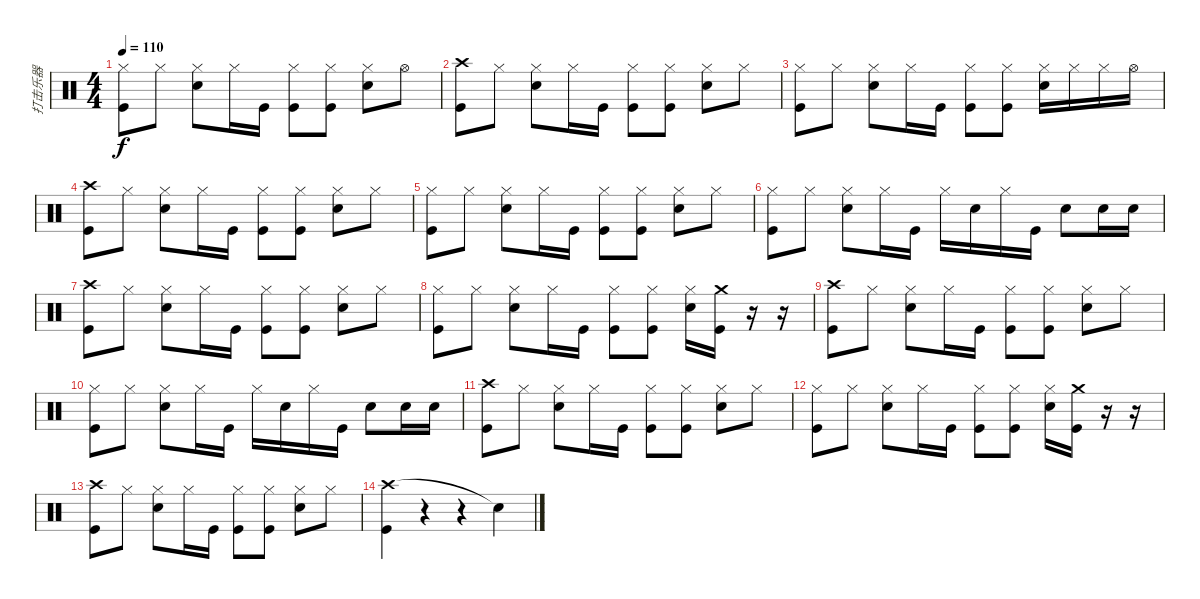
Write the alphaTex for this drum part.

\track ("打击乐器" "打击乐器") {instrument percussion}
\staff {score}
\articulation defaults
\ts (4 4)
\tempo 110
\clef neutral
\ks c
("Hi-Hat (closed)" "Kick (hit)").8{dy f} "Hi-Hat (closed)".8 ("Hi-Hat (closed)" "Snare (hit) 2").8 "Hi-Hat (closed)".16 "Kick (hit)".16 ("Hi-Hat (closed)" "Kick (hit)").8 ("Hi-Hat (closed)" "Kick (hit)").8 ("Hi-Hat (closed)" "Snare (hit) 2").8 "Hi-Hat (open)".8 |
("Crash high (hit)" "Kick (hit)").8 "Hi-Hat (closed)".8 ("Hi-Hat (closed)" "Snare (hit) 2").8 "Hi-Hat (closed)".16 "Kick (hit)".16 ("Hi-Hat (closed)" "Kick (hit)").8 ("Hi-Hat (closed)" "Kick (hit)").8 ("Hi-Hat (closed)" "Snare (hit) 2").8 "Hi-Hat (closed)".8 |
("Hi-Hat (closed)" "Kick (hit)").8 "Hi-Hat (closed)".8 ("Hi-Hat (closed)" "Snare (hit) 2").8 "Hi-Hat (closed)".16 "Kick (hit)".16 ("Hi-Hat (closed)" "Kick (hit)").8 ("Hi-Hat (closed)" "Kick (hit)").8 ("Hi-Hat (closed)" "Snare (hit) 2").16 "Hi-Hat (closed)".16 "Hi-Hat (closed)".16 "Hi-Hat (open)".16 |
("Crash high (hit)" "Kick (hit)").8 "Hi-Hat (closed)".8 ("Hi-Hat (closed)" "Snare (hit) 2").8 "Hi-Hat (closed)".16 "Kick (hit)".16 ("Hi-Hat (closed)" "Kick (hit)").8 ("Hi-Hat (closed)" "Kick (hit)").8 ("Hi-Hat (closed)" "Snare (hit) 2").8 "Hi-Hat (closed)".8 |
("Hi-Hat (closed)" "Kick (hit)").8 "Hi-Hat (closed)".8 ("Hi-Hat (closed)" "Snare (hit) 2").8 "Hi-Hat (closed)".16 "Kick (hit)".16 ("Hi-Hat (closed)" "Kick (hit)").8 ("Hi-Hat (closed)" "Kick (hit)").8 ("Hi-Hat (closed)" "Snare (hit) 2").8 "Hi-Hat (closed)".8 |
("Hi-Hat (closed)" "Kick (hit)").8 "Hi-Hat (closed)".8 ("Hi-Hat (closed)" "Snare (hit) 2").8 "Hi-Hat (closed)".16 "Kick (hit)".16 "Hi-Hat (closed)".16 "Snare (hit) 2".16 "Hi-Hat (closed)".16 "Kick (hit)".16 "Snare (hit) 2".8 "Snare (hit) 2".16 "Snare (hit) 2".16 |
("Crash high (hit)" "Kick (hit)").8 "Hi-Hat (closed)".8 ("Hi-Hat (closed)" "Snare (hit) 2").8 "Hi-Hat (closed)".16 "Kick (hit)".16 ("Hi-Hat (closed)" "Kick (hit)").8 ("Hi-Hat (closed)" "Kick (hit)").8 ("Hi-Hat (closed)" "Snare (hit) 2").8 "Hi-Hat (closed)".8 |
("Hi-Hat (closed)" "Kick (hit)").8 "Hi-Hat (closed)".8 ("Hi-Hat (closed)" "Snare (hit) 2").8 "Hi-Hat (closed)".16 "Kick (hit)".16 ("Hi-Hat (closed)" "Kick (hit)").8 ("Hi-Hat (closed)" "Kick (hit)").8 ("Hi-Hat (closed)" "Snare (hit) 2").16 ("Crash medium (hit)" "Kick (hit)").16 r.16 r.16 |
("Crash high (hit)" "Kick (hit)").8 "Hi-Hat (closed)".8 ("Hi-Hat (closed)" "Snare (hit) 2").8 "Hi-Hat (closed)".16 "Kick (hit)".16 ("Hi-Hat (closed)" "Kick (hit)").8 ("Hi-Hat (closed)" "Kick (hit)").8 ("Hi-Hat (closed)" "Snare (hit) 2").8 "Hi-Hat (closed)".8 |
("Hi-Hat (closed)" "Kick (hit)").8 "Hi-Hat (closed)".8 ("Hi-Hat (closed)" "Snare (hit) 2").8 "Hi-Hat (closed)".16 "Kick (hit)".16 "Hi-Hat (closed)".16 "Snare (hit) 2".16 "Hi-Hat (closed)".16 "Kick (hit)".16 "Snare (hit) 2".8 "Snare (hit) 2".16 "Snare (hit) 2".16 |
("Crash high (hit)" "Kick (hit)").8 "Hi-Hat (closed)".8 ("Hi-Hat (closed)" "Snare (hit) 2").8 "Hi-Hat (closed)".16 "Kick (hit)".16 ("Hi-Hat (closed)" "Kick (hit)").8 ("Hi-Hat (closed)" "Kick (hit)").8 ("Hi-Hat (closed)" "Snare (hit) 2").8 "Hi-Hat (closed)".8 |
("Hi-Hat (closed)" "Kick (hit)").8 "Hi-Hat (closed)".8 ("Hi-Hat (closed)" "Snare (hit) 2").8 "Hi-Hat (closed)".16 "Kick (hit)".16 ("Hi-Hat (closed)" "Kick (hit)").8 ("Hi-Hat (closed)" "Kick (hit)").8 ("Hi-Hat (closed)" "Snare (hit) 2").16 ("Crash medium (hit)" "Kick (hit)").16 r.16 r.16 |
("Crash high (hit)" "Kick (hit)").8 "Hi-Hat (closed)".8 ("Hi-Hat (closed)" "Snare (hit) 2").8 "Hi-Hat (closed)".16 "Kick (hit)".16 ("Hi-Hat (closed)" "Kick (hit)").8 ("Hi-Hat (closed)" "Kick (hit)").8 ("Hi-Hat (closed)" "Snare (hit) 2").8 "Hi-Hat (closed)".8 |
("Crash high (hit)" "Kick (hit)").4 r.4 r.4 "Snare (hit)"{t}.4
